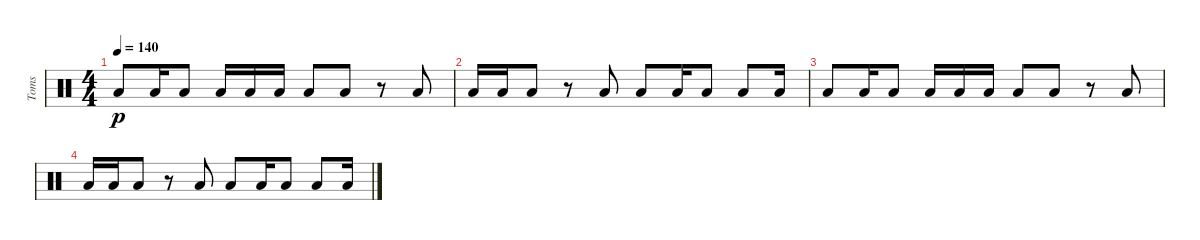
\track ("Toms" "Toms") {instrument percussion}
\staff {score}
\articulation defaults
\ts (4 4)
\tempo 140
\clef neutral
\ks c "Low Floor Tom (hit)".8{dy p} "Low Tom (hit)".16 "Low Floor Tom (hit)".8 "Low Tom (hit)".16 "Low Floor Tom (hit)".16 "Low Floor Tom (hit)".16 "Low Floor Tom (hit)".8 "Low Tom (hit)".8
r.8 "Low Tom (hit)".8 |
"Low Floor Tom (hit)".16 "Low Floor Tom (hit)".16 "Low Tom (hit)".8 r.8 "Low Tom (hit)".8 "Low Floor Tom (hit)".8 "Low Tom (hit)".16 "Low Floor Tom (hit)".8 "Low Tom (hit)".8 "Low Floor Tom (hit)".16 |
"Low Floor Tom (hit)".8 "Low Tom (hit)".16 "Low Floor Tom (hit)".8 "Low Tom (hit)".16 "Low Floor Tom (hit)".16 "Low Floor Tom (hit)".16 "Low Floor Tom (hit)".8 "Low Tom (hit)".8 r.8 "Low Tom (hit)".8 |
"Low Floor Tom (hit)".16 "Low Floor Tom (hit)".16 "Low Tom (hit)".8 r.8 "Low Tom (hit)".8 "Low Floor Tom (hit)".8 "Low Tom (hit)".16 "Low Floor Tom (hit)".8 "Low Tom (hit)".8 "Low Floor Tom (hit)".16
